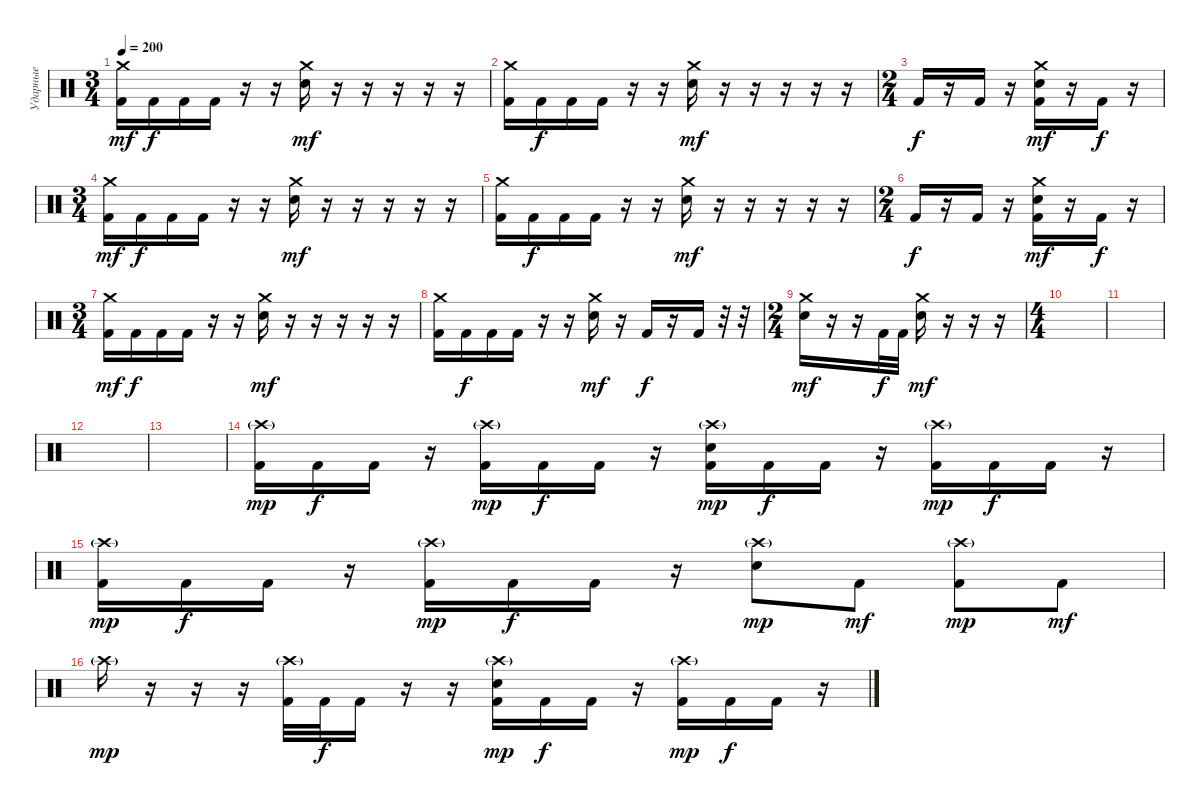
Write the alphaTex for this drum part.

\track ("Ударные" "Ударные") {instrument percussion bank 101}
\staff {score}
\articulation defaults
\ts (3 4)
\tempo 200
\clef neutral
\ks c
("Crash medium (hit)" "Kick (hit) 2").16{dy mf} "Kick (hit) 2".16{dy f} "Kick (hit) 2".16 "Kick (hit) 2".16 r.16 r.16 ("Crash medium (hit)" "Electric Snare (hit)").16{dy mf} r.16 r.16 r.16 r.16 r.16 |
("Crash medium (hit)" "Kick (hit) 2").16 "Kick (hit) 2".16{dy f} "Kick (hit) 2".16 "Kick (hit) 2".16 r.16 r.16 ("Crash medium (hit)" "Electric Snare (hit)").16{dy mf} r.16 r.16 r.16 r.16 r.16 |
\ts (2 4)
"Kick (hit) 2".16{dy f} r.16 "Kick (hit) 2".16 r.16 ("Crash medium (hit)" "Electric Snare (hit)" "Kick (hit) 2").16{dy mf} r.16 "Kick (hit) 2".16{dy f} r.16 |
\ts (3 4)
("Crash medium (hit)" "Kick (hit) 2").16{dy mf} "Kick (hit) 2".16{dy f} "Kick (hit) 2".16 "Kick (hit) 2".16 r.16 r.16 ("Crash medium (hit)" "Electric Snare (hit)").16{dy mf} r.16 r.16 r.16 r.16 r.16 |
("Crash medium (hit)" "Kick (hit) 2").16 "Kick (hit) 2".16{dy f} "Kick (hit) 2".16 "Kick (hit) 2".16 r.16 r.16 ("Crash medium (hit)" "Electric Snare (hit)").16{dy mf} r.16 r.16 r.16 r.16 r.16 |
\ts (2 4)
"Kick (hit) 2".16{dy f} r.16 "Kick (hit) 2".16 r.16 ("Crash medium (hit)" "Electric Snare (hit)" "Kick (hit) 2").16{dy mf} r.16 "Kick (hit) 2".16{dy f} r.16 |
\ts (3 4)
("Crash medium (hit)" "Kick (hit) 2").16{dy mf} "Kick (hit) 2".16{dy f} "Kick (hit) 2".16 "Kick (hit) 2".16 r.16 r.16 ("Crash medium (hit)" "Electric Snare (hit)").16{dy mf} r.16 r.16 r.16 r.16 r.16 |
("Crash medium (hit)" "Kick (hit) 2").16 "Kick (hit) 2".16{dy f} "Kick (hit) 2".16 "Kick (hit) 2".16 r.16 r.16 ("Crash medium (hit)" "Electric Snare (hit)").16{dy mf} r.16 "Kick (hit) 2".16{dy f} r.16 "Kick (hit) 2".16 r.32 r.32 |
\ts (2 4)
("Crash medium (hit)" "Electric Snare (hit)").16{dy mf} r.16 r.16 "Kick (hit) 2".32{dy f} "Kick (hit) 2".32 ("Crash medium (hit)" "Electric Snare (hit)").16{dy mf} r.16 r.16 r.16 |
\ts (4 4)
|
|
|
|
("Crash high (hit)"{g} "Kick (hit) 2").16{dy mp} "Kick (hit) 2".16{dy f} "Kick (hit) 2".16 r.16 ("Crash high (hit)"{g} "Kick (hit) 2").16{dy mp} "Kick (hit) 2".16{dy f} "Kick (hit) 2".16 r.16 ("Crash high (hit)"{g} "Electric Snare (hit)" "Kick (hit) 2").16{dy mp} "Kick (hit) 2".16{dy f} "Kick (hit) 2".16 r.16 ("Crash high (hit)"{g} "Kick (hit) 2").16{dy mp} "Kick (hit) 2".16{dy f} "Kick (hit) 2".16 r.16 |
("Crash high (hit)"{g} "Kick (hit) 2").16{dy mp} "Kick (hit) 2".16{dy f} "Kick (hit) 2".16 r.16 ("Crash high (hit)"{g} "Kick (hit) 2").16{dy mp} "Kick (hit) 2".16{dy f} "Kick (hit) 2".16 r.16 ("Crash high (hit)"{g} "Electric Snare (hit)").8{dy mp} "Kick (hit) 2".8{dy mf} ("Crash high (hit)"{g} "Kick (hit) 2").8{dy mp} "Kick (hit) 2".8{dy mf} |
"Crash high (hit)"{g}.16{dy mp} r.16 r.16 r.16 ("Crash high (hit)"{g} "Kick (hit) 2").32 "Kick (hit) 2".32{dy f} "Kick (hit) 2".16 r.16 r.16 ("Crash high (hit)"{g} "Electric Snare (hit)" "Kick (hit) 2").16{dy mp} "Kick (hit) 2".16{dy f} "Kick (hit) 2".16 r.16 ("Crash high (hit)"{g} "Kick (hit) 2").16{dy mp} "Kick (hit) 2".16{dy f} "Kick (hit) 2".16 r.16
